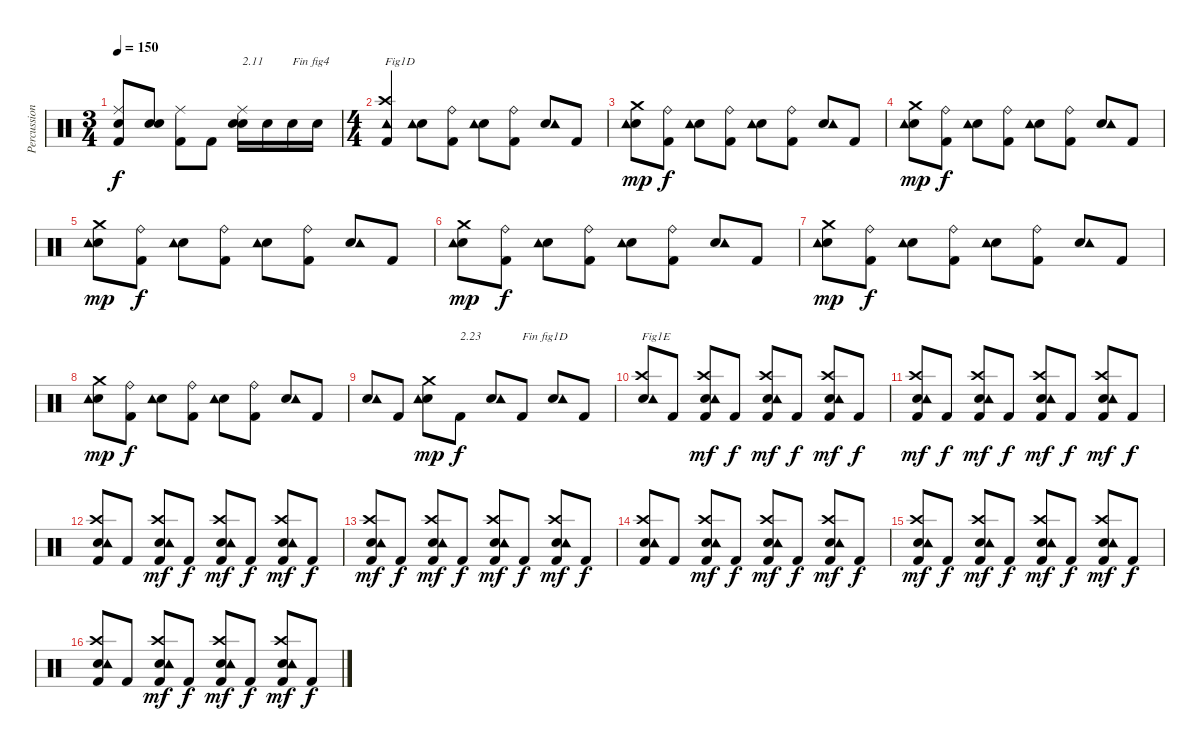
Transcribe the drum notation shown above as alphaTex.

\track ("Percussions" "Percussion") {instrument percussion}
\staff {score}
\articulation defaults
\ts (3 4)
\tempo 150
\clef neutral
\ks c
("Kick (hit) 2" "Ride (middle)" "Hand Clap (hit)").8{dy f} ("Electric Snare (hit)" "Hand Clap (hit)").8 ("Kick (hit) 2" "Ride (middle)").8 "Kick (hit) 2".8 ("Electric Snare (hit)" "Ride (middle)" "Hand Clap (hit)").16{txt "2.11"} "Electric Snare (hit)".16 "Electric Snare (hit)".16{txt "Fin fig4"} "Electric Snare (hit)".16 |
\ts (4 4)
("Kick (hit) 2" "Crash high (hit)" "Tambourine (hit)").4{txt "Fig1D"} ("Electric Snare (hit)" "Tambourine (hit)").8 ("Kick (hit) 2" "Ride (bell)").8 ("Electric Snare (hit)" "Tambourine (hit)").8 ("Kick (hit) 2" "Ride (bell)").8 ("Electric Snare (hit)" "Tambourine (hit)").8 "Kick (hit) 2".8 |
("Electric Snare (hit)" "Crash medium (hit)" "Tambourine (hit)").8{dy mp} ("Kick (hit) 2" "Ride (bell)").8{dy f} ("Electric Snare (hit)" "Tambourine (hit)").8 ("Kick (hit) 2" "Ride (bell)").8 ("Electric Snare (hit)" "Tambourine (hit)").8 ("Kick (hit) 2" "Ride (bell)").8 ("Electric Snare (hit)" "Tambourine (hit)").8 "Kick (hit) 2".8 |
("Electric Snare (hit)" "Crash medium (hit)" "Tambourine (hit)").8{dy mp} ("Kick (hit) 2" "Ride (bell)").8{dy f} ("Electric Snare (hit)" "Tambourine (hit)").8 ("Kick (hit) 2" "Ride (bell)").8 ("Electric Snare (hit)" "Tambourine (hit)").8 ("Kick (hit) 2" "Ride (bell)").8 ("Electric Snare (hit)" "Tambourine (hit)").8 "Kick (hit) 2".8 |
("Electric Snare (hit)" "Crash medium (hit)" "Tambourine (hit)").8{dy mp} ("Kick (hit) 2" "Ride (bell)").8{dy f} ("Electric Snare (hit)" "Tambourine (hit)").8 ("Kick (hit) 2" "Ride (bell)").8 ("Electric Snare (hit)" "Tambourine (hit)").8 ("Kick (hit) 2" "Ride (bell)").8 ("Electric Snare (hit)" "Tambourine (hit)").8 "Kick (hit) 2".8 |
("Electric Snare (hit)" "Crash medium (hit)" "Tambourine (hit)").8{dy mp} ("Kick (hit) 2" "Ride (bell)").8{dy f} ("Electric Snare (hit)" "Tambourine (hit)").8 ("Kick (hit) 2" "Ride (bell)").8 ("Electric Snare (hit)" "Tambourine (hit)").8 ("Kick (hit) 2" "Ride (bell)").8 ("Electric Snare (hit)" "Tambourine (hit)").8 "Kick (hit) 2".8 |
("Electric Snare (hit)" "Crash medium (hit)" "Tambourine (hit)").8{dy mp} ("Kick (hit) 2" "Ride (bell)").8{dy f} ("Electric Snare (hit)" "Tambourine (hit)").8 ("Kick (hit) 2" "Ride (bell)").8 ("Electric Snare (hit)" "Tambourine (hit)").8 ("Kick (hit) 2" "Ride (bell)").8 ("Electric Snare (hit)" "Tambourine (hit)").8 "Kick (hit) 2".8 |
("Electric Snare (hit)" "Crash medium (hit)" "Tambourine (hit)").8{dy mp} ("Kick (hit) 2" "Ride (bell)").8{dy f} ("Electric Snare (hit)" "Tambourine (hit)").8 ("Kick (hit) 2" "Ride (bell)").8 ("Electric Snare (hit)" "Tambourine (hit)").8 ("Kick (hit) 2" "Ride (bell)").8 ("Electric Snare (hit)" "Tambourine (hit)").8 "Kick (hit) 2".8 |
("Electric Snare (hit)" "Tambourine (hit)").8 "Kick (hit) 2".8 ("Electric Snare (hit)" "Crash medium (hit)" "Tambourine (hit)").8{dy mp} "Kick (hit) 2".8{txt "2.23" dy f} ("Electric Snare (hit)" "Tambourine (hit)").8 "Kick (hit) 2".8{txt "Fin fig1D"} ("Electric Snare (hit)" "Tambourine (hit)").8 "Kick (hit) 2".8 |
("Electric Snare (hit)" "Crash high (hit)" "Tambourine (hit)").8{txt "Fig1E"} "Kick (hit) 2".8 ("Kick (hit) 2" "Electric Snare (hit)" "Crash high (hit)" "Tambourine (hit)").8{dy mf} "Kick (hit) 2".8{dy f} ("Kick (hit) 2" "Electric Snare (hit)" "Crash high (hit)" "Tambourine (hit)").8{dy mf} "Kick (hit) 2".8{dy f} ("Kick (hit) 2" "Electric Snare (hit)" "Crash high (hit)" "Tambourine (hit)").8{dy mf} "Kick (hit) 2".8{dy f} |
("Kick (hit) 2" "Electric Snare (hit)" "Crash high (hit)" "Tambourine (hit)").8{dy mf} "Kick (hit) 2".8{dy f} ("Kick (hit) 2" "Electric Snare (hit)" "Crash high (hit)" "Tambourine (hit)").8{dy mf} "Kick (hit) 2".8{dy f} ("Kick (hit) 2" "Electric Snare (hit)" "Crash high (hit)" "Tambourine (hit)").8{dy mf} "Kick (hit) 2".8{dy f} ("Kick (hit) 2" "Electric Snare (hit)" "Crash high (hit)" "Tambourine (hit)").8{dy mf} "Kick (hit) 2".8{dy f} |
("Kick (hit) 2" "Electric Snare (hit)" "Crash high (hit)" "Tambourine (hit)").8 "Kick (hit) 2".8 ("Kick (hit) 2" "Electric Snare (hit)" "Crash high (hit)" "Tambourine (hit)").8{dy mf} "Kick (hit) 2".8{dy f} ("Kick (hit) 2" "Electric Snare (hit)" "Crash high (hit)" "Tambourine (hit)").8{dy mf} "Kick (hit) 2".8{dy f} ("Kick (hit) 2" "Electric Snare (hit)" "Crash high (hit)" "Tambourine (hit)").8{dy mf} "Kick (hit) 2".8{dy f} |
("Kick (hit) 2" "Electric Snare (hit)" "Crash high (hit)" "Tambourine (hit)").8{dy mf} "Kick (hit) 2".8{dy f} ("Kick (hit) 2" "Electric Snare (hit)" "Crash high (hit)" "Tambourine (hit)").8{dy mf} "Kick (hit) 2".8{dy f} ("Kick (hit) 2" "Electric Snare (hit)" "Crash high (hit)" "Tambourine (hit)").8{dy mf} "Kick (hit) 2".8{dy f} ("Kick (hit) 2" "Electric Snare (hit)" "Crash high (hit)" "Tambourine (hit)").8{dy mf} "Kick (hit) 2".8{dy f} |
("Kick (hit) 2" "Electric Snare (hit)" "Crash high (hit)" "Tambourine (hit)").8 "Kick (hit) 2".8 ("Kick (hit) 2" "Electric Snare (hit)" "Crash high (hit)" "Tambourine (hit)").8{dy mf} "Kick (hit) 2".8{dy f} ("Kick (hit) 2" "Electric Snare (hit)" "Crash high (hit)" "Tambourine (hit)").8{dy mf} "Kick (hit) 2".8{dy f} ("Kick (hit) 2" "Electric Snare (hit)" "Crash high (hit)" "Tambourine (hit)").8{dy mf} "Kick (hit) 2".8{dy f} |
("Kick (hit) 2" "Electric Snare (hit)" "Crash high (hit)" "Tambourine (hit)").8{dy mf} "Kick (hit) 2".8{dy f} ("Kick (hit) 2" "Electric Snare (hit)" "Crash high (hit)" "Tambourine (hit)").8{dy mf} "Kick (hit) 2".8{dy f} ("Kick (hit) 2" "Electric Snare (hit)" "Crash high (hit)" "Tambourine (hit)").8{dy mf} "Kick (hit) 2".8{dy f} ("Kick (hit) 2" "Electric Snare (hit)" "Crash high (hit)" "Tambourine (hit)").8{dy mf} "Kick (hit) 2".8{dy f} |
("Kick (hit) 2" "Electric Snare (hit)" "Crash high (hit)" "Tambourine (hit)").8 "Kick (hit) 2".8 ("Kick (hit) 2" "Electric Snare (hit)" "Crash high (hit)" "Tambourine (hit)").8{dy mf} "Kick (hit) 2".8{dy f} ("Kick (hit) 2" "Electric Snare (hit)" "Crash high (hit)" "Tambourine (hit)").8{dy mf} "Kick (hit) 2".8{dy f} ("Kick (hit) 2" "Electric Snare (hit)" "Crash high (hit)" "Tambourine (hit)").8{dy mf} "Kick (hit) 2".8{dy f}
